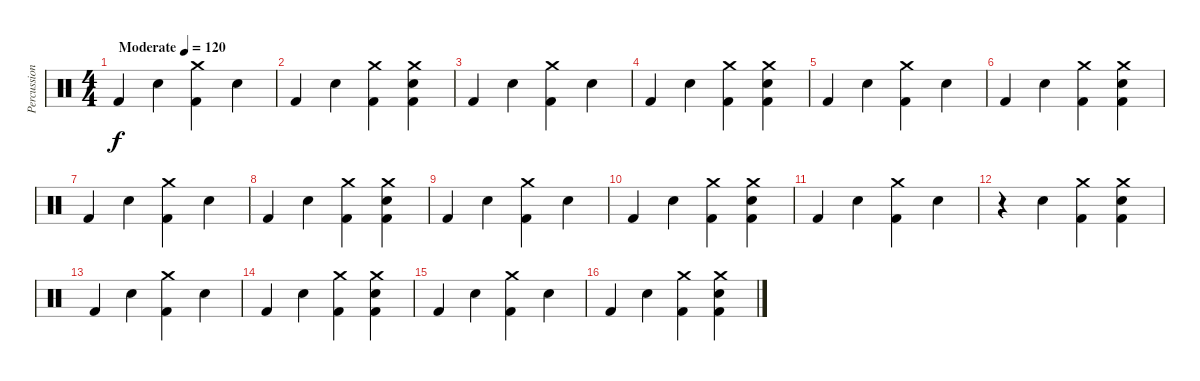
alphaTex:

\track ("Percussion" "Percussion") {instrument percussion}
\staff {score}
\articulation defaults
\ts (4 4)
\tempo (120 "Moderate")
\clef neutral
\ks c "Kick (hit) 2".4{dy f} "Hand Clap (hit)".4
("Crash medium (hit)" "Kick (hit) 2").4 "Hand Clap (hit)".4 |
"Kick (hit) 2".4 "Hand Clap (hit)".4 ("Crash medium (hit)" "Kick (hit) 2").4 ("Crash medium (hit)" "Hand Clap (hit)" "Kick (hit) 2").4 |
"Kick (hit) 2".4 "Hand Clap (hit)".4 ("Crash medium (hit)" "Kick (hit) 2").4 "Hand Clap (hit)".4 |
"Kick (hit) 2".4 "Hand Clap (hit)".4 ("Crash medium (hit)" "Kick (hit) 2").4 ("Crash medium (hit)" "Hand Clap (hit)" "Kick (hit) 2").4 |
"Kick (hit) 2".4 "Hand Clap (hit)".4 ("Crash medium (hit)" "Kick (hit) 2").4 "Hand Clap (hit)".4 |
"Kick (hit) 2".4 "Hand Clap (hit)".4 ("Crash medium (hit)" "Kick (hit) 2").4 ("Crash medium (hit)" "Hand Clap (hit)" "Kick (hit) 2").4 |
"Kick (hit) 2".4 "Hand Clap (hit)".4 ("Crash medium (hit)" "Kick (hit) 2").4 "Hand Clap (hit)".4 |
"Kick (hit) 2".4 "Hand Clap (hit)".4 ("Crash medium (hit)" "Kick (hit) 2").4 ("Crash medium (hit)" "Hand Clap (hit)" "Kick (hit) 2").4 |
"Kick (hit) 2".4 "Hand Clap (hit)".4 ("Crash medium (hit)" "Kick (hit) 2").4 "Hand Clap (hit)".4 |
"Kick (hit) 2".4 "Hand Clap (hit)".4 ("Crash medium (hit)" "Kick (hit) 2").4 ("Crash medium (hit)" "Hand Clap (hit)" "Kick (hit) 2").4 |
"Kick (hit) 2".4 "Hand Clap (hit)".4 ("Crash medium (hit)" "Kick (hit) 2").4 "Hand Clap (hit)".4 |
r.4 "Hand Clap (hit)".4 ("Crash medium (hit)" "Kick (hit) 2").4 ("Crash medium (hit)" "Hand Clap (hit)" "Kick (hit) 2").4 |
"Kick (hit) 2".4 "Hand Clap (hit)".4 ("Crash medium (hit)" "Kick (hit) 2").4 "Hand Clap (hit)".4 |
"Kick (hit) 2".4 "Hand Clap (hit)".4 ("Crash medium (hit)" "Kick (hit) 2").4 ("Crash medium (hit)" "Hand Clap (hit)" "Kick (hit) 2").4 |
"Kick (hit) 2".4 "Hand Clap (hit)".4 ("Crash medium (hit)" "Kick (hit) 2").4 "Hand Clap (hit)".4 |
"Kick (hit) 2".4 "Hand Clap (hit)".4 ("Crash medium (hit)" "Kick (hit) 2").4 ("Crash medium (hit)" "Hand Clap (hit)" "Kick (hit) 2").4
